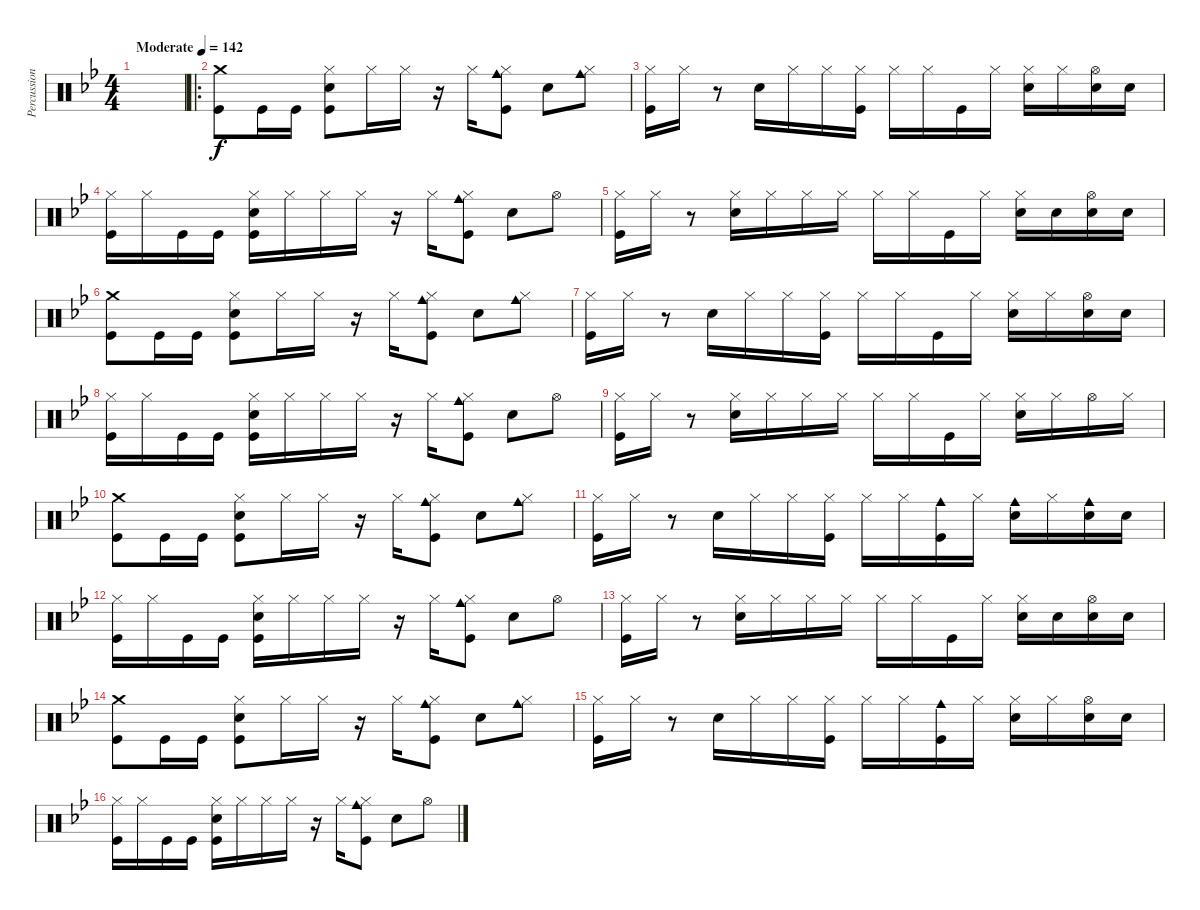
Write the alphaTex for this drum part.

\track ("Percussion" "Percussion") {instrument percussion}
\staff {score}
\articulation defaults
\ts (4 4)
\tempo (142 "Moderate")
\clef neutral
\ks gminor
|
\ro
("Crash medium (hit)" "Kick (hit)").8 "Kick (hit)".16 "Kick (hit)".16 ("Hi-Hat (closed)" "Snare (hit) 2" "Kick (hit)").8 "Hi-Hat (closed)".16 "Hi-Hat (closed)".16 r.16 "Hi-Hat (closed)".16 ("Cowbell medium (hit)" "Hi-Hat (closed)" "Kick (hit)").8 "Snare (hit) 2".8 ("Cowbell medium (hit)" "Hi-Hat (closed)").8 |
("Hi-Hat (closed)" "Kick (hit)").16 "Hi-Hat (closed)".16 r.8 "Snare (hit) 2".16 "Hi-Hat (closed)".16 "Hi-Hat (closed)".16 ("Hi-Hat (closed)" "Kick (hit)").16 "Hi-Hat (closed)".16 "Hi-Hat (closed)".16 "Kick (hit)".16 "Hi-Hat (closed)".16 ("Hi-Hat (closed)" "Snare (hit) 2").16 "Hi-Hat (closed)".16 ("Hi-Hat (open)" "Snare (hit) 2").16 "Snare (hit) 2".16 |
("Hi-Hat (closed)" "Kick (hit)").16 "Hi-Hat (closed)".16 "Kick (hit)".16 "Kick (hit)".16 ("Hi-Hat (closed)" "Snare (hit) 2" "Kick (hit)").16 "Hi-Hat (closed)".16 "Hi-Hat (closed)".16 "Hi-Hat (closed)".16 r.16 "Hi-Hat (closed)".16 ("Cowbell medium (hit)" "Hi-Hat (closed)" "Kick (hit)").8 "Snare (hit) 2".8 "Hi-Hat (open)".8 |
("Hi-Hat (closed)" "Kick (hit)").16 "Hi-Hat (closed)".16 r.8 ("Hi-Hat (closed)" "Snare (hit) 2").16 "Hi-Hat (closed)".16 "Hi-Hat (closed)".16 "Hi-Hat (closed)".16 "Hi-Hat (closed)".16 "Hi-Hat (closed)".16 "Kick (hit)".16 "Hi-Hat (closed)".16 ("Hi-Hat (closed)" "Snare (hit) 2").16 "Snare (hit) 2".16 ("Hi-Hat (open)" "Snare (hit) 2").16 "Snare (hit) 2".16 |
("Crash medium (hit)" "Kick (hit)").8 "Kick (hit)".16 "Kick (hit)".16 ("Hi-Hat (closed)" "Snare (hit) 2" "Kick (hit)").8 "Hi-Hat (closed)".16 "Hi-Hat (closed)".16 r.16 "Hi-Hat (closed)".16 ("Cowbell medium (hit)" "Hi-Hat (closed)" "Kick (hit)").8 "Snare (hit) 2".8 ("Cowbell medium (hit)" "Hi-Hat (closed)").8 |
("Hi-Hat (closed)" "Kick (hit)").16 "Hi-Hat (closed)".16 r.8 "Snare (hit) 2".16 "Hi-Hat (closed)".16 "Hi-Hat (closed)".16 ("Hi-Hat (closed)" "Kick (hit)").16 "Hi-Hat (closed)".16 "Hi-Hat (closed)".16 "Kick (hit)".16 "Hi-Hat (closed)".16 ("Hi-Hat (closed)" "Snare (hit) 2").16 "Hi-Hat (closed)".16 ("Hi-Hat (open)" "Snare (hit) 2").16 "Snare (hit) 2".16 |
("Hi-Hat (closed)" "Kick (hit)").16 "Hi-Hat (closed)".16 "Kick (hit)".16 "Kick (hit)".16 ("Hi-Hat (closed)" "Snare (hit) 2" "Kick (hit)").16 "Hi-Hat (closed)".16 "Hi-Hat (closed)".16 "Hi-Hat (closed)".16 r.16 "Hi-Hat (closed)".16 ("Cowbell medium (hit)" "Hi-Hat (closed)" "Kick (hit)").8 "Snare (hit) 2".8 "Hi-Hat (open)".8 |
("Hi-Hat (closed)" "Kick (hit)").16 "Hi-Hat (closed)".16 r.8 ("Hi-Hat (closed)" "Snare (hit) 2").16 "Hi-Hat (closed)".16 "Hi-Hat (closed)".16 "Hi-Hat (closed)".16 "Hi-Hat (closed)".16 "Hi-Hat (closed)".16 "Kick (hit)".16 "Hi-Hat (closed)".16 ("Hi-Hat (closed)" "Snare (hit) 2").16 "Hi-Hat (closed)".16 "Hi-Hat (open)".16 "Hi-Hat (closed)".16 |
("Crash medium (hit)" "Kick (hit)").8 "Kick (hit)".16 "Kick (hit)".16 ("Hi-Hat (closed)" "Snare (hit) 2" "Kick (hit)").8 "Hi-Hat (closed)".16 "Hi-Hat (closed)".16 r.16 "Hi-Hat (closed)".16 ("Cowbell medium (hit)" "Hi-Hat (closed)" "Kick (hit)").8 "Snare (hit) 2".8 ("Cowbell medium (hit)" "Hi-Hat (closed)").8 |
("Hi-Hat (closed)" "Kick (hit)").16 "Hi-Hat (closed)".16 r.8 "Snare (hit) 2".16 "Hi-Hat (closed)".16 "Hi-Hat (closed)".16 ("Hi-Hat (closed)" "Kick (hit)").16 "Hi-Hat (closed)".16 "Hi-Hat (closed)".16 ("Cowbell medium (hit)" "Kick (hit)").16 "Hi-Hat (closed)".16 ("Cowbell medium (hit)" "Snare (hit) 2").16 "Hi-Hat (closed)".16 ("Cowbell medium (hit)" "Snare (hit) 2").16 "Snare (hit) 2".16 |
("Hi-Hat (closed)" "Kick (hit)").16 "Hi-Hat (closed)".16 "Kick (hit)".16 "Kick (hit)".16 ("Hi-Hat (closed)" "Snare (hit) 2" "Kick (hit)").16 "Hi-Hat (closed)".16 "Hi-Hat (closed)".16 "Hi-Hat (closed)".16 r.16 "Hi-Hat (closed)".16 ("Cowbell medium (hit)" "Hi-Hat (closed)" "Kick (hit)").8 "Snare (hit) 2".8 "Hi-Hat (open)".8 |
("Hi-Hat (closed)" "Kick (hit)").16 "Hi-Hat (closed)".16 r.8 ("Hi-Hat (closed)" "Snare (hit) 2").16 "Hi-Hat (closed)".16 "Hi-Hat (closed)".16 "Hi-Hat (closed)".16 "Hi-Hat (closed)".16 "Hi-Hat (closed)".16 "Kick (hit)".16 "Hi-Hat (closed)".16 ("Hi-Hat (closed)" "Snare (hit) 2").16 "Snare (hit) 2".16 ("Hi-Hat (open)" "Snare (hit) 2").16 "Snare (hit) 2".16 |
("Crash medium (hit)" "Kick (hit)").8 "Kick (hit)".16 "Kick (hit)".16 ("Hi-Hat (closed)" "Snare (hit) 2" "Kick (hit)").8 "Hi-Hat (closed)".16 "Hi-Hat (closed)".16 r.16 "Hi-Hat (closed)".16 ("Cowbell medium (hit)" "Hi-Hat (closed)" "Kick (hit)").8 "Snare (hit) 2".8 ("Cowbell medium (hit)" "Hi-Hat (closed)").8 |
("Hi-Hat (closed)" "Kick (hit)").16 "Hi-Hat (closed)".16 r.8 "Snare (hit) 2".16 "Hi-Hat (closed)".16 "Hi-Hat (closed)".16 ("Hi-Hat (closed)" "Kick (hit)").16 "Hi-Hat (closed)".16 "Hi-Hat (closed)".16 ("Cowbell medium (hit)" "Kick (hit)").16 "Hi-Hat (closed)".16 ("Hi-Hat (closed)" "Snare (hit) 2").16 "Hi-Hat (closed)".16 ("Hi-Hat (open)" "Snare (hit) 2").16 "Snare (hit) 2".16 |
("Hi-Hat (closed)" "Kick (hit)").16 "Hi-Hat (closed)".16 "Kick (hit)".16 "Kick (hit)".16 ("Hi-Hat (closed)" "Snare (hit) 2" "Kick (hit)").16 "Hi-Hat (closed)".16 "Hi-Hat (closed)".16 "Hi-Hat (closed)".16 r.16 "Hi-Hat (closed)".16 ("Cowbell medium (hit)" "Hi-Hat (closed)" "Kick (hit)").8 "Snare (hit) 2".8 "Hi-Hat (open)".8
